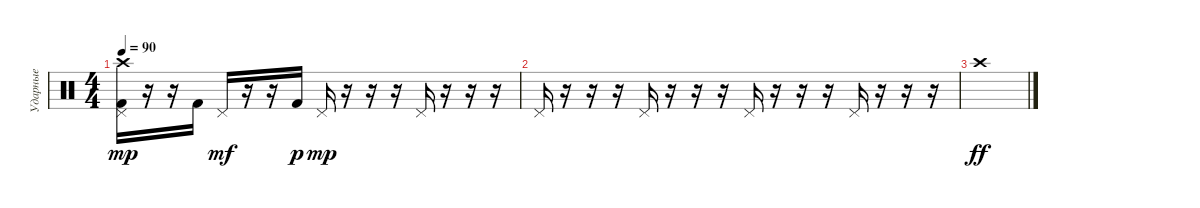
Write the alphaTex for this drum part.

\track ("Ударные" "Ударные") {instrument percussion}
\staff {score}
\articulation defaults
\ts (4 4)
\tempo 90
\clef neutral
\ks aminor
("Crash high (hit)" "Pedal Hi-Hat (hit)" "Kick (hit) 2").16{dy mp} r.16 r.16 "Kick (hit) 2".16 "Pedal Hi-Hat (hit)".16{dy mf} r.16 r.16 "Kick (hit) 2".16{dy p} "Pedal Hi-Hat (hit)".16{dy mp} r.16 r.16 r.16 "Pedal Hi-Hat (hit)".16 r.16 r.16 r.16 |
"Pedal Hi-Hat (hit)".16 r.16 r.16 r.16 "Pedal Hi-Hat (hit)".16 r.16 r.16 r.16 "Pedal Hi-Hat (hit)".16 r.16 r.16 r.16 "Pedal Hi-Hat (hit)".16 r.16 r.16 r.16 |
"Crash high (hit)".1{dy ff}
